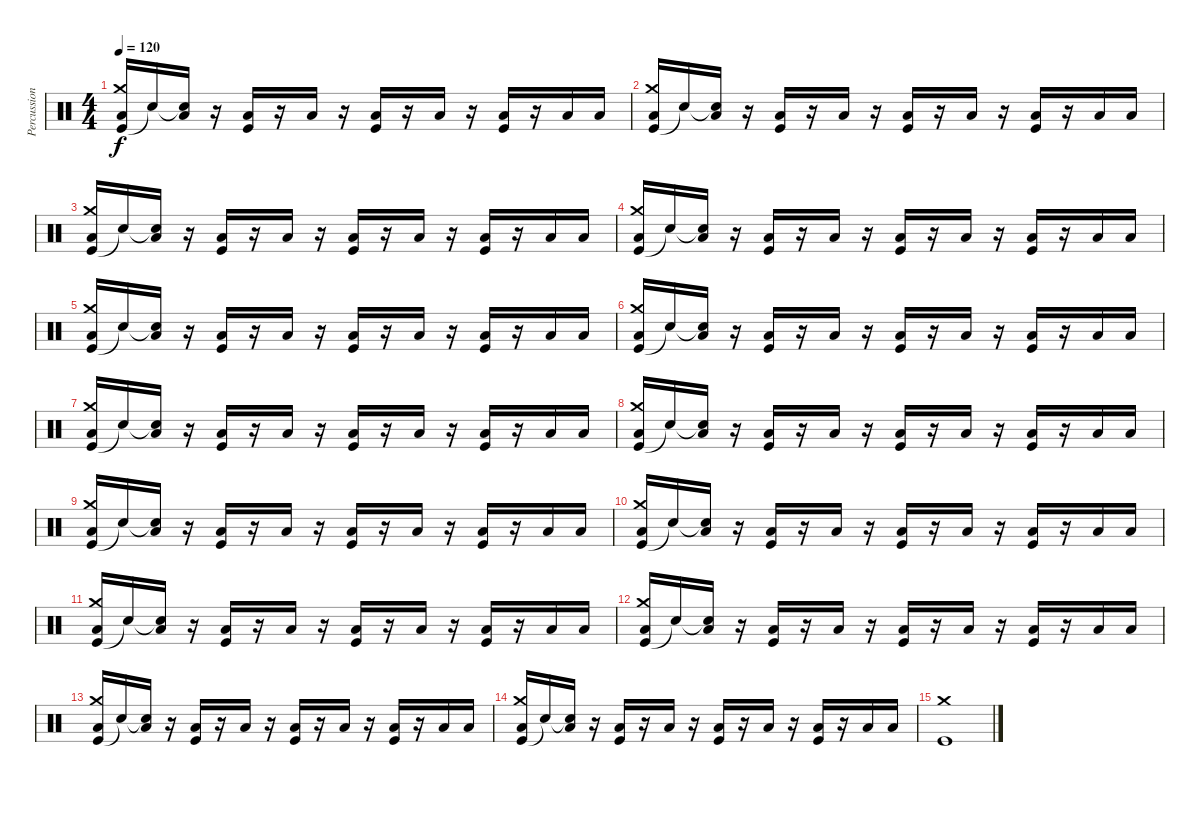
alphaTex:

\track ("Percussion" "Percussion") {instrument percussion}
\staff {score}
\articulation defaults
\ts (4 4)
\tempo 120
\clef neutral
\ks c
("Kick (hit)" "Crash medium (hit)" "Low Tom (hit)").16{dy f} "Snare (hit)"{t}.16 ("Snare (hit)"{t} "Low Tom (hit)").16 r.16 ("Kick (hit)" "Low Tom (hit)").16 r.16 "Low Tom (hit)".16 r.16 ("Kick (hit)" "Low Tom (hit)").16 r.16 "Low Tom (hit)".16 r.16 ("Kick (hit)" "Low Tom (hit)").16 r.16 "Low Tom (hit)".16 "Low Tom (hit)".16 |
("Kick (hit)" "Crash medium (hit)" "Low Tom (hit)").16 "Snare (hit)"{t}.16 ("Snare (hit)"{t} "Low Tom (hit)").16 r.16 ("Kick (hit)" "Low Tom (hit)").16 r.16 "Low Tom (hit)".16 r.16 ("Kick (hit)" "Low Tom (hit)").16 r.16 "Low Tom (hit)".16 r.16 ("Kick (hit)" "Low Tom (hit)").16 r.16 "Low Tom (hit)".16 "Low Tom (hit)".16 |
("Kick (hit)" "Crash medium (hit)" "Low Tom (hit)").16 "Snare (hit)"{t}.16 ("Snare (hit)"{t} "Low Tom (hit)").16 r.16 ("Kick (hit)" "Low Tom (hit)").16 r.16 "Low Tom (hit)".16 r.16 ("Kick (hit)" "Low Tom (hit)").16 r.16 "Low Tom (hit)".16 r.16 ("Kick (hit)" "Low Tom (hit)").16 r.16 "Low Tom (hit)".16 "Low Tom (hit)".16 |
("Kick (hit)" "Crash medium (hit)" "Low Tom (hit)").16 "Snare (hit)"{t}.16 ("Snare (hit)"{t} "Low Tom (hit)").16 r.16 ("Kick (hit)" "Low Tom (hit)").16 r.16 "Low Tom (hit)".16 r.16 ("Kick (hit)" "Low Tom (hit)").16 r.16 "Low Tom (hit)".16 r.16 ("Kick (hit)" "Low Tom (hit)").16 r.16 "Low Tom (hit)".16 "Low Tom (hit)".16 |
("Kick (hit)" "Crash medium (hit)" "Low Tom (hit)").16 "Snare (hit)"{t}.16 ("Snare (hit)"{t} "Low Tom (hit)").16 r.16 ("Kick (hit)" "Low Tom (hit)").16 r.16 "Low Tom (hit)".16 r.16 ("Kick (hit)" "Low Tom (hit)").16 r.16 "Low Tom (hit)".16 r.16 ("Kick (hit)" "Low Tom (hit)").16 r.16 "Low Tom (hit)".16 "Low Tom (hit)".16 |
("Kick (hit)" "Crash medium (hit)" "Low Tom (hit)").16 "Snare (hit)"{t}.16 ("Snare (hit)"{t} "Low Tom (hit)").16 r.16 ("Kick (hit)" "Low Tom (hit)").16 r.16 "Low Tom (hit)".16 r.16 ("Kick (hit)" "Low Tom (hit)").16 r.16 "Low Tom (hit)".16 r.16 ("Kick (hit)" "Low Tom (hit)").16 r.16 "Low Tom (hit)".16 "Low Tom (hit)".16 |
("Kick (hit)" "Crash medium (hit)" "Low Tom (hit)").16 "Snare (hit)"{t}.16 ("Snare (hit)"{t} "Low Tom (hit)").16 r.16 ("Kick (hit)" "Low Tom (hit)").16 r.16 "Low Tom (hit)".16 r.16 ("Kick (hit)" "Low Tom (hit)").16 r.16 "Low Tom (hit)".16 r.16 ("Kick (hit)" "Low Tom (hit)").16 r.16 "Low Tom (hit)".16 "Low Tom (hit)".16 |
("Kick (hit)" "Crash medium (hit)" "Low Tom (hit)").16 "Snare (hit)"{t}.16 ("Snare (hit)"{t} "Low Tom (hit)").16 r.16 ("Kick (hit)" "Low Tom (hit)").16 r.16 "Low Tom (hit)".16 r.16 ("Kick (hit)" "Low Tom (hit)").16 r.16 "Low Tom (hit)".16 r.16 ("Kick (hit)" "Low Tom (hit)").16 r.16 "Low Tom (hit)".16 "Low Tom (hit)".16 |
("Kick (hit)" "Crash medium (hit)" "Low Tom (hit)").16 "Snare (hit)"{t}.16 ("Snare (hit)"{t} "Low Tom (hit)").16 r.16 ("Kick (hit)" "Low Tom (hit)").16 r.16 "Low Tom (hit)".16 r.16 ("Kick (hit)" "Low Tom (hit)").16 r.16 "Low Tom (hit)".16 r.16 ("Kick (hit)" "Low Tom (hit)").16 r.16 "Low Tom (hit)".16 "Low Tom (hit)".16 |
("Kick (hit)" "Crash medium (hit)" "Low Tom (hit)").16 "Snare (hit)"{t}.16 ("Snare (hit)"{t} "Low Tom (hit)").16 r.16 ("Kick (hit)" "Low Tom (hit)").16 r.16 "Low Tom (hit)".16 r.16 ("Kick (hit)" "Low Tom (hit)").16 r.16 "Low Tom (hit)".16 r.16 ("Kick (hit)" "Low Tom (hit)").16 r.16 "Low Tom (hit)".16 "Low Tom (hit)".16 |
("Kick (hit)" "Crash medium (hit)" "Low Tom (hit)").16 "Snare (hit)"{t}.16 ("Snare (hit)"{t} "Low Tom (hit)").16 r.16 ("Kick (hit)" "Low Tom (hit)").16 r.16 "Low Tom (hit)".16 r.16 ("Kick (hit)" "Low Tom (hit)").16 r.16 "Low Tom (hit)".16 r.16 ("Kick (hit)" "Low Tom (hit)").16 r.16 "Low Tom (hit)".16 "Low Tom (hit)".16 |
("Kick (hit)" "Crash medium (hit)" "Low Tom (hit)").16 "Snare (hit)"{t}.16 ("Snare (hit)"{t} "Low Tom (hit)").16 r.16 ("Kick (hit)" "Low Tom (hit)").16 r.16 "Low Tom (hit)".16 r.16 ("Kick (hit)" "Low Tom (hit)").16 r.16 "Low Tom (hit)".16 r.16 ("Kick (hit)" "Low Tom (hit)").16 r.16 "Low Tom (hit)".16 "Low Tom (hit)".16 |
("Kick (hit)" "Crash medium (hit)" "Low Tom (hit)").16 "Snare (hit)"{t}.16 ("Snare (hit)"{t} "Low Tom (hit)").16 r.16 ("Kick (hit)" "Low Tom (hit)").16 r.16 "Low Tom (hit)".16 r.16 ("Kick (hit)" "Low Tom (hit)").16 r.16 "Low Tom (hit)".16 r.16 ("Kick (hit)" "Low Tom (hit)").16 r.16 "Low Tom (hit)".16 "Low Tom (hit)".16 |
("Kick (hit)" "Crash medium (hit)" "Low Tom (hit)").16 "Snare (hit)"{t}.16 ("Snare (hit)"{t} "Low Tom (hit)").16 r.16 ("Kick (hit)" "Low Tom (hit)").16 r.16 "Low Tom (hit)".16 r.16 ("Kick (hit)" "Low Tom (hit)").16 r.16 "Low Tom (hit)".16 r.16 ("Kick (hit)" "Low Tom (hit)").16 r.16 "Low Tom (hit)".16 "Low Tom (hit)".16 |
("Kick (hit)" "Crash medium (hit)").1
